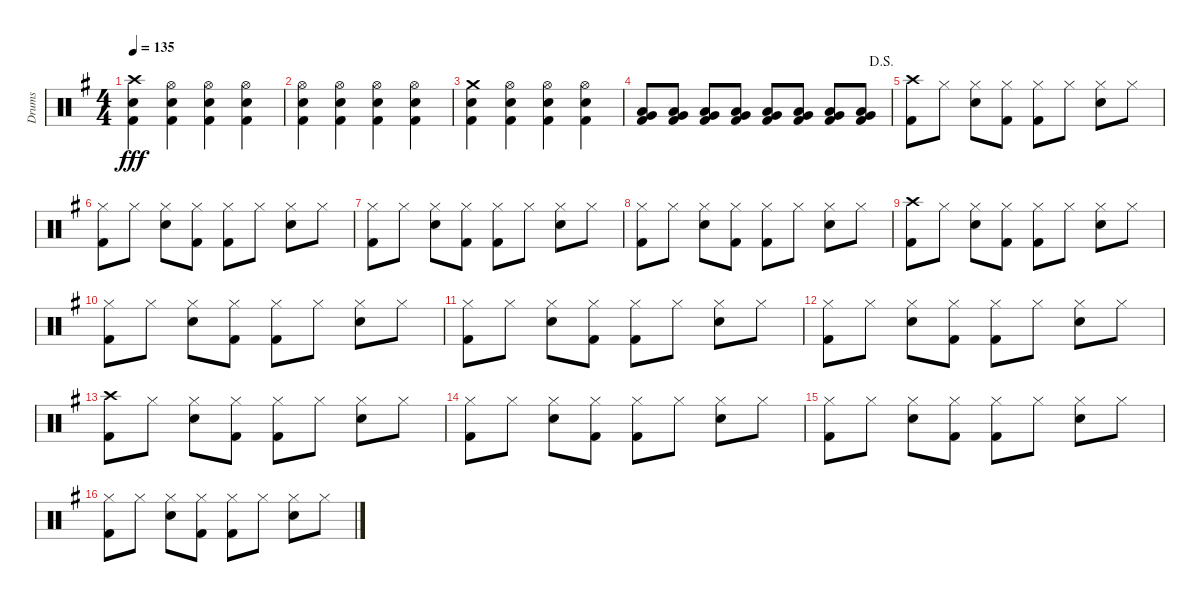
\track ("Drums" "Drums") {instrument percussion}
\staff {score}
\articulation defaults
\ts (4 4)
\tempo 135
\clef neutral
\ks g
("Crash high (hit)" "Electric Snare (hit)" "Kick (hit) 2").4{dy fff} ("Hi-Hat (open)" "Electric Snare (hit)" "Kick (hit) 2").4 ("Hi-Hat (open)" "Electric Snare (hit)" "Kick (hit) 2").4 ("Hi-Hat (open)" "Electric Snare (hit)" "Kick (hit) 2").4 |
("Hi-Hat (open)" "Electric Snare (hit)" "Kick (hit) 2").4 ("Hi-Hat (open)" "Electric Snare (hit)" "Kick (hit) 2").4 ("Hi-Hat (open)" "Electric Snare (hit)" "Kick (hit) 2").4 ("Hi-Hat (open)" "Electric Snare (hit)" "Kick (hit) 2").4 |
("Crash medium (hit)" "Electric Snare (hit)" "Kick (hit) 2").4 ("Hi-Hat (open)" "Electric Snare (hit)" "Kick (hit) 2").4 ("Hi-Hat (open)" "Electric Snare (hit)" "Kick (hit) 2").4 ("Hi-Hat (open)" "Electric Snare (hit)" "Kick (hit) 2").4 |
\jump dalsegno
("Low Tom (hit)" "Very Low Tom (hit)" "Kick (hit) 2").8 ("Low Tom (hit)" "Very Low Tom (hit)" "Kick (hit) 2").8 ("Low Tom (hit)" "Very Low Tom (hit)" "Kick (hit) 2").8 ("Low Tom (hit)" "Very Low Tom (hit)" "Kick (hit) 2").8 ("Low Tom (hit)" "Very Low Tom (hit)" "Kick (hit) 2").8 ("Low Tom (hit)" "Very Low Tom (hit)" "Kick (hit) 2").8 ("Low Tom (hit)" "Very Low Tom (hit)" "Kick (hit) 2").8 ("Low Tom (hit)" "Very Low Tom (hit)" "Kick (hit) 2").8 |
("Crash high (hit)" "Kick (hit) 2").8 "Hi-Hat (closed)".8 ("Hi-Hat (closed)" "Electric Snare (hit)").8 ("Hi-Hat (closed)" "Kick (hit) 2").8 ("Hi-Hat (closed)" "Kick (hit) 2").8 "Hi-Hat (closed)".8 ("Hi-Hat (closed)" "Electric Snare (hit)").8 "Hi-Hat (closed)".8 |
("Hi-Hat (closed)" "Kick (hit) 2").8 "Hi-Hat (closed)".8 ("Hi-Hat (closed)" "Electric Snare (hit)").8 ("Hi-Hat (closed)" "Kick (hit) 2").8 ("Hi-Hat (closed)" "Kick (hit) 2").8 "Hi-Hat (closed)".8 ("Hi-Hat (closed)" "Electric Snare (hit)").8 "Hi-Hat (closed)".8 |
("Hi-Hat (closed)" "Kick (hit) 2").8 "Hi-Hat (closed)".8 ("Hi-Hat (closed)" "Electric Snare (hit)").8 ("Hi-Hat (closed)" "Kick (hit) 2").8 ("Hi-Hat (closed)" "Kick (hit) 2").8 "Hi-Hat (closed)".8 ("Hi-Hat (closed)" "Electric Snare (hit)").8 "Hi-Hat (closed)".8 |
("Hi-Hat (closed)" "Kick (hit) 2").8 "Hi-Hat (closed)".8 ("Hi-Hat (closed)" "Electric Snare (hit)").8 ("Hi-Hat (closed)" "Kick (hit) 2").8 ("Hi-Hat (closed)" "Kick (hit) 2").8 "Hi-Hat (closed)".8 ("Hi-Hat (closed)" "Electric Snare (hit)").8 "Hi-Hat (closed)".8 |
("Crash high (hit)" "Kick (hit) 2").8 "Hi-Hat (closed)".8 ("Hi-Hat (closed)" "Electric Snare (hit)").8 ("Hi-Hat (closed)" "Kick (hit) 2").8 ("Hi-Hat (closed)" "Kick (hit) 2").8 "Hi-Hat (closed)".8 ("Hi-Hat (closed)" "Electric Snare (hit)").8 "Hi-Hat (closed)".8 |
("Hi-Hat (closed)" "Kick (hit) 2").8 "Hi-Hat (closed)".8 ("Hi-Hat (closed)" "Electric Snare (hit)").8 ("Hi-Hat (closed)" "Kick (hit) 2").8 ("Hi-Hat (closed)" "Kick (hit) 2").8 "Hi-Hat (closed)".8 ("Hi-Hat (closed)" "Electric Snare (hit)").8 "Hi-Hat (closed)".8 |
("Hi-Hat (closed)" "Kick (hit) 2").8 "Hi-Hat (closed)".8 ("Hi-Hat (closed)" "Electric Snare (hit)").8 ("Hi-Hat (closed)" "Kick (hit) 2").8 ("Hi-Hat (closed)" "Kick (hit) 2").8 "Hi-Hat (closed)".8 ("Hi-Hat (closed)" "Electric Snare (hit)").8 "Hi-Hat (closed)".8 |
("Hi-Hat (closed)" "Kick (hit) 2").8 "Hi-Hat (closed)".8 ("Hi-Hat (closed)" "Electric Snare (hit)").8 ("Hi-Hat (closed)" "Kick (hit) 2").8 ("Hi-Hat (closed)" "Kick (hit) 2").8 "Hi-Hat (closed)".8 ("Hi-Hat (closed)" "Electric Snare (hit)").8 "Hi-Hat (closed)".8 |
("Crash high (hit)" "Kick (hit) 2").8 "Hi-Hat (closed)".8 ("Hi-Hat (closed)" "Electric Snare (hit)").8 ("Hi-Hat (closed)" "Kick (hit) 2").8 ("Hi-Hat (closed)" "Kick (hit) 2").8 "Hi-Hat (closed)".8 ("Hi-Hat (closed)" "Electric Snare (hit)").8 "Hi-Hat (closed)".8 |
("Hi-Hat (closed)" "Kick (hit) 2").8 "Hi-Hat (closed)".8 ("Hi-Hat (closed)" "Electric Snare (hit)").8 ("Hi-Hat (closed)" "Kick (hit) 2").8 ("Hi-Hat (closed)" "Kick (hit) 2").8 "Hi-Hat (closed)".8 ("Hi-Hat (closed)" "Electric Snare (hit)").8 "Hi-Hat (closed)".8 |
("Hi-Hat (closed)" "Kick (hit) 2").8 "Hi-Hat (closed)".8 ("Hi-Hat (closed)" "Electric Snare (hit)").8 ("Hi-Hat (closed)" "Kick (hit) 2").8 ("Hi-Hat (closed)" "Kick (hit) 2").8 "Hi-Hat (closed)".8 ("Hi-Hat (closed)" "Electric Snare (hit)").8 "Hi-Hat (closed)".8 |
("Hi-Hat (closed)" "Kick (hit) 2").8 "Hi-Hat (closed)".8 ("Hi-Hat (closed)" "Electric Snare (hit)").8 ("Hi-Hat (closed)" "Kick (hit) 2").8 ("Hi-Hat (closed)" "Kick (hit) 2").8 "Hi-Hat (closed)".8 ("Hi-Hat (closed)" "Electric Snare (hit)").8 "Hi-Hat (closed)".8
